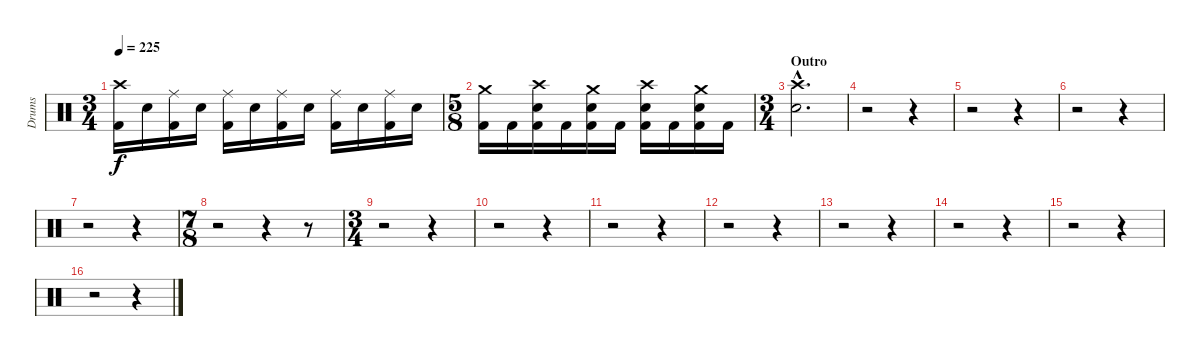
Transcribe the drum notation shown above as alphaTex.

\track ("Drums" "Drums") {instrument percussion}
\staff {score}
\articulation defaults
\ts (3 4)
\tempo 225
\clef neutral
\ks c
("Kick (hit) 2" "Crash high (hit)").16{dy f} "Electric Snare (hit)".16 ("Kick (hit) 2" "Ride (middle)").16 "Electric Snare (hit)".16 ("Kick (hit) 2" "Ride (middle)").16 "Electric Snare (hit)".16 ("Kick (hit) 2" "Ride (middle)").16 "Electric Snare (hit)".16 ("Kick (hit) 2" "Ride (middle)").16 "Electric Snare (hit)".16 ("Kick (hit) 2" "Ride (middle)").16 "Electric Snare (hit)".16 |
\ts (5 8)
("Kick (hit) 2" "Crash medium (hit)").16 "Kick (hit) 2".16 ("Kick (hit) 2" "Electric Snare (hit)" "Crash high (hit)").16 "Kick (hit) 2".16 ("Kick (hit) 2" "Electric Snare (hit)" "Crash medium (hit)").16 "Kick (hit) 2".16 ("Kick (hit) 2" "Electric Snare (hit)" "Crash high (hit)").16 "Kick (hit) 2".16 ("Kick (hit) 2" "Electric Snare (hit)" "Crash medium (hit)").16 "Kick (hit) 2".16 |
\ts (3 4)
\section ("" "Outro")
("Electric Snare (hit)"{hac} "Crash high (hit)"{hac}).2{d} |
r.2 r.4 |
r.2 r.4 |
r.2 r.4 |
r.2 r.4 |
\ts (7 8)
r.2 r.4 r.8 |
\ts (3 4)
r.2 r.4 |
r.2 r.4 |
r.2 r.4 |
r.2 r.4 |
r.2 r.4 |
r.2 r.4 |
r.2 r.4 |
r.2 r.4
